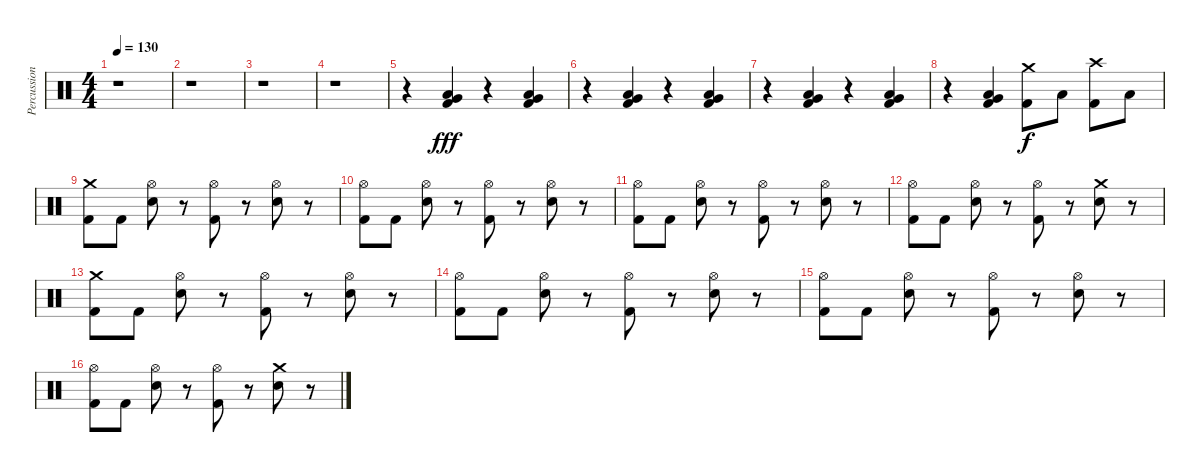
\track ("Percussions" "Percussion") {instrument percussion}
\staff {score}
\articulation defaults
\ts (4 4)
\tempo 130
\clef neutral
\ks c
r.1{dy fff} |
r.1 |
r.1 |
r.1 |
r.4 ("Very Low Tom (hit)" "Low Tom (hit)" "Kick (hit) 2").4 r.4 ("Very Low Tom (hit)" "Low Tom (hit)" "Kick (hit) 2").4 |
r.4 ("Very Low Tom (hit)" "Low Tom (hit)" "Kick (hit) 2").4 r.4 ("Very Low Tom (hit)" "Low Tom (hit)" "Kick (hit) 2").4 |
r.4 ("Very Low Tom (hit)" "Low Tom (hit)" "Kick (hit) 2").4 r.4 ("Very Low Tom (hit)" "Low Tom (hit)" "Kick (hit) 2").4 |
r.4 ("Very Low Tom (hit)" "Low Tom (hit)" "Kick (hit) 2").4 ("Crash medium (hit)" "Kick (hit) 2").8{dy f} "Low Tom (hit)".8 ("Crash high (hit)" "Kick (hit) 2").8 "Low Tom (hit)".8 |
("Crash medium (hit)" "Kick (hit) 2").8 "Kick (hit) 2".8 ("Hi-Hat (open)" "Electric Snare (hit)").8 r.8 ("Hi-Hat (open)" "Kick (hit) 2").8 r.8 ("Hi-Hat (open)" "Electric Snare (hit)").8 r.8 |
("Hi-Hat (open)" "Kick (hit) 2").8 "Kick (hit) 2".8 ("Hi-Hat (open)" "Electric Snare (hit)").8 r.8 ("Hi-Hat (open)" "Kick (hit) 2").8 r.8 ("Hi-Hat (open)" "Electric Snare (hit)").8 r.8 |
("Hi-Hat (open)" "Kick (hit) 2").8 "Kick (hit) 2".8 ("Hi-Hat (open)" "Electric Snare (hit)").8 r.8 ("Hi-Hat (open)" "Kick (hit) 2").8 r.8 ("Hi-Hat (open)" "Electric Snare (hit)").8 r.8 |
("Hi-Hat (open)" "Kick (hit) 2").8 "Kick (hit) 2".8 ("Hi-Hat (open)" "Electric Snare (hit)").8 r.8 ("Hi-Hat (open)" "Kick (hit) 2").8 r.8 ("Crash medium (hit)" "Electric Snare (hit)").8 r.8 |
("Crash medium (hit)" "Kick (hit) 2").8 "Kick (hit) 2".8 ("Hi-Hat (open)" "Electric Snare (hit)").8 r.8 ("Hi-Hat (open)" "Kick (hit) 2").8 r.8 ("Hi-Hat (open)" "Electric Snare (hit)").8 r.8 |
("Hi-Hat (open)" "Kick (hit) 2").8 "Kick (hit) 2".8 ("Hi-Hat (open)" "Electric Snare (hit)").8 r.8 ("Hi-Hat (open)" "Kick (hit) 2").8 r.8 ("Hi-Hat (open)" "Electric Snare (hit)").8 r.8 |
("Hi-Hat (open)" "Kick (hit) 2").8 "Kick (hit) 2".8 ("Hi-Hat (open)" "Electric Snare (hit)").8 r.8 ("Hi-Hat (open)" "Kick (hit) 2").8 r.8 ("Hi-Hat (open)" "Electric Snare (hit)").8 r.8 |
("Hi-Hat (open)" "Kick (hit) 2").8 "Kick (hit) 2".8 ("Hi-Hat (open)" "Electric Snare (hit)").8 r.8 ("Hi-Hat (open)" "Kick (hit) 2").8 r.8 ("Crash medium (hit)" "Electric Snare (hit)").8 r.8
